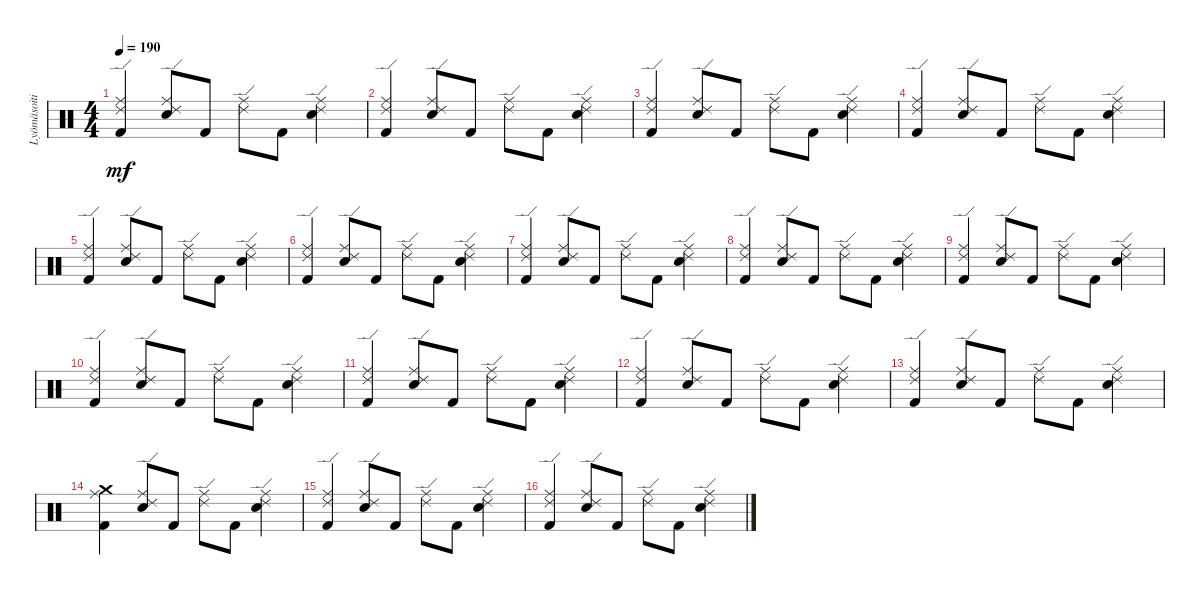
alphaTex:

\track ("Lyömäsoitin" "Lyömäsoiti") {instrument percussion}
\staff {score}
\articulation defaults
\ts (4 4)
\tempo 190
\clef neutral
\ks c
("Ride (edge) 2" "Ride (middle)" "Kick (hit) 2").4{dy mf} ("Ride (edge) 2" "Ride (middle)" "Snare (hit) 2").8 "Kick (hit) 2".8 ("Ride (edge) 2" "Ride (middle)").8 "Kick (hit) 2".8 ("Ride (edge) 2" "Ride (middle)" "Snare (hit) 2").4 |
("Ride (edge) 2" "Ride (middle)" "Kick (hit) 2").4 ("Ride (edge) 2" "Ride (middle)" "Snare (hit) 2").8 "Kick (hit) 2".8 ("Ride (edge) 2" "Ride (middle)").8 "Kick (hit) 2".8 ("Ride (edge) 2" "Ride (middle)" "Snare (hit) 2").4 |
("Ride (edge) 2" "Ride (middle)" "Kick (hit) 2").4 ("Ride (edge) 2" "Ride (middle)" "Snare (hit) 2").8 "Kick (hit) 2".8 ("Ride (edge) 2" "Ride (middle)").8 "Kick (hit) 2".8 ("Ride (edge) 2" "Ride (middle)" "Snare (hit) 2").4 |
("Ride (edge) 2" "Ride (middle)" "Kick (hit) 2").4 ("Ride (edge) 2" "Ride (middle)" "Snare (hit) 2").8 "Kick (hit) 2".8 ("Ride (edge) 2" "Ride (middle)").8 "Kick (hit) 2".8 ("Ride (edge) 2" "Ride (middle)" "Snare (hit) 2").4 |
("Ride (edge) 2" "Ride (middle)" "Kick (hit) 2").4 ("Ride (edge) 2" "Ride (middle)" "Snare (hit) 2").8 "Kick (hit) 2".8 ("Ride (edge) 2" "Ride (middle)").8 "Kick (hit) 2".8 ("Ride (edge) 2" "Ride (middle)" "Snare (hit) 2").4 |
("Ride (edge) 2" "Ride (middle)" "Kick (hit) 2").4 ("Ride (edge) 2" "Ride (middle)" "Snare (hit) 2").8 "Kick (hit) 2".8 ("Ride (edge) 2" "Ride (middle)").8 "Kick (hit) 2".8 ("Ride (edge) 2" "Ride (middle)" "Snare (hit) 2").4 |
("Ride (edge) 2" "Ride (middle)" "Kick (hit) 2").4 ("Ride (edge) 2" "Ride (middle)" "Snare (hit) 2").8 "Kick (hit) 2".8 ("Ride (edge) 2" "Ride (middle)").8 "Kick (hit) 2".8 ("Ride (edge) 2" "Ride (middle)" "Snare (hit) 2").4 |
("Ride (edge) 2" "Ride (middle)" "Kick (hit) 2").4 ("Ride (edge) 2" "Ride (middle)" "Snare (hit) 2").8 "Kick (hit) 2".8 ("Ride (edge) 2" "Ride (middle)").8 "Kick (hit) 2".8 ("Ride (edge) 2" "Ride (middle)" "Snare (hit) 2").4 |
("Ride (edge) 2" "Ride (middle)" "Kick (hit) 2").4 ("Ride (edge) 2" "Ride (middle)" "Snare (hit) 2").8 "Kick (hit) 2".8 ("Ride (edge) 2" "Ride (middle)").8 "Kick (hit) 2".8 ("Ride (edge) 2" "Ride (middle)" "Snare (hit) 2").4 |
("Ride (edge) 2" "Ride (middle)" "Kick (hit) 2").4 ("Ride (edge) 2" "Ride (middle)" "Snare (hit) 2").8 "Kick (hit) 2".8 ("Ride (edge) 2" "Ride (middle)").8 "Kick (hit) 2".8 ("Ride (edge) 2" "Ride (middle)" "Snare (hit) 2").4 |
("Ride (edge) 2" "Ride (middle)" "Kick (hit) 2").4 ("Ride (edge) 2" "Ride (middle)" "Snare (hit) 2").8 "Kick (hit) 2".8 ("Ride (edge) 2" "Ride (middle)").8 "Kick (hit) 2".8 ("Ride (edge) 2" "Ride (middle)" "Snare (hit) 2").4 |
("Ride (edge) 2" "Ride (middle)" "Kick (hit) 2").4 ("Ride (edge) 2" "Ride (middle)" "Snare (hit) 2").8 "Kick (hit) 2".8 ("Ride (edge) 2" "Ride (middle)").8 "Kick (hit) 2".8 ("Ride (edge) 2" "Ride (middle)" "Snare (hit) 2").4 |
("Ride (edge) 2" "Ride (middle)" "Kick (hit) 2").4 ("Ride (edge) 2" "Ride (middle)" "Snare (hit) 2").8 "Kick (hit) 2".8 ("Ride (edge) 2" "Ride (middle)").8 "Kick (hit) 2".8 ("Ride (edge) 2" "Ride (middle)" "Snare (hit) 2").4 |
("Crash medium (hit)" "Ride (middle)" "Kick (hit) 2").4 ("Ride (edge) 2" "Ride (middle)" "Snare (hit) 2").8 "Kick (hit) 2".8 ("Ride (edge) 2" "Ride (middle)").8 "Kick (hit) 2".8 ("Ride (edge) 2" "Ride (middle)" "Snare (hit) 2").4 |
("Ride (edge) 2" "Ride (middle)" "Kick (hit) 2").4 ("Ride (edge) 2" "Ride (middle)" "Snare (hit) 2").8 "Kick (hit) 2".8 ("Ride (edge) 2" "Ride (middle)").8 "Kick (hit) 2".8 ("Ride (edge) 2" "Ride (middle)" "Snare (hit) 2").4 |
("Ride (edge) 2" "Ride (middle)" "Kick (hit) 2").4 ("Ride (edge) 2" "Ride (middle)" "Snare (hit) 2").8 "Kick (hit) 2".8 ("Ride (edge) 2" "Ride (middle)").8 "Kick (hit) 2".8 ("Ride (edge) 2" "Ride (middle)" "Snare (hit) 2").4
